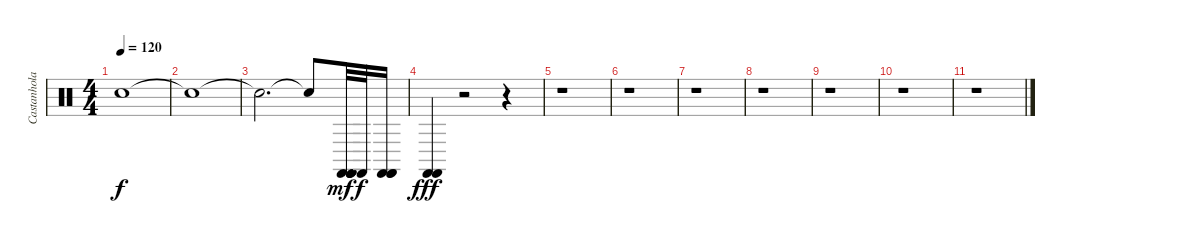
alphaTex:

\track ("Castanholas etc. ïåğêóññèÿ" "Castanhola") {instrument percussion}
\staff {score}
\articulation defaults
\ts (4 4)
\tempo 120
\clef neutral
\ks c "Snare (hit)"{t}.1{dy f}
|
"Snare (hit)"{t}.1 |
"Snare (hit)"{t}.2{d} "Snare (hit)"{t}.8 ("Castanets (hit)" "Castanets (hit)" "Castanets (hit)" "Castanets (hit)").32{dy mf} "Castanets (hit)".32{dy f} ("Castanets (hit)" "Castanets (hit)" "Castanets (hit)").16 |
("Castanets (hit)" "Castanets (hit)").4{dy fff} r.2 r.4 |
r.1 |
r.1 |
r.1 |
r.1 |
r.1 |
r.1 |
r.1
